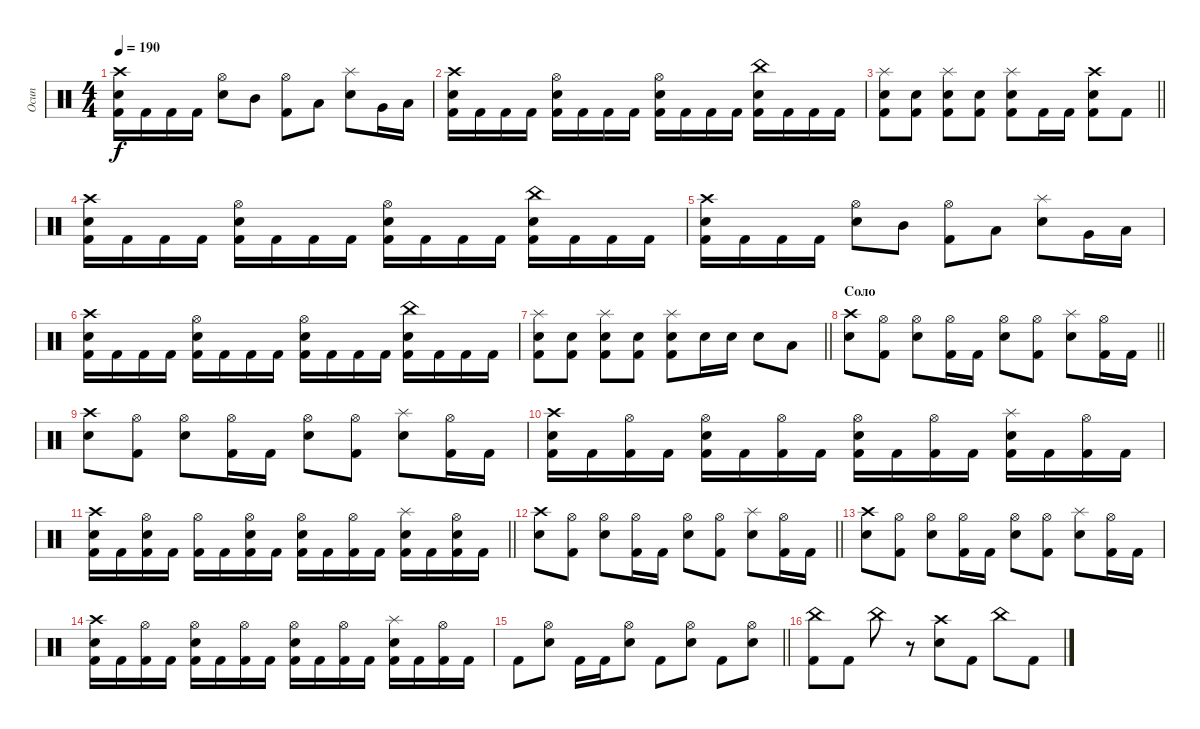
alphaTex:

\track ("Осип" "Осип") {instrument percussion}
\staff {score}
\articulation defaults
\ts (4 4)
\tempo 190
\clef neutral
\ks c
("Kick (hit) 2" "Electric Snare (hit)" "Crash high (hit)").16{dy f} "Kick (hit) 2".16 "Kick (hit) 2".16 "Kick (hit) 2".16 ("Electric Snare (hit)" "Hi-Hat (open)").8 "Mid Tom (hit)".8 ("Kick (hit) 2" "Hi-Hat (open)").8 "Low Tom (hit)".8 ("Electric Snare (hit)" "Splash (hit)").8 "Very Low Tom (hit)".16 "Low Tom (hit)".16 |
("Kick (hit) 2" "Electric Snare (hit)" "Crash high (hit)").16 "Kick (hit) 2".16 "Kick (hit) 2".16 "Kick (hit) 2".16 ("Kick (hit) 2" "Electric Snare (hit)" "Hi-Hat (open)").16 "Kick (hit) 2".16 "Kick (hit) 2".16 "Kick (hit) 2".16 ("Kick (hit) 2" "Electric Snare (hit)" "Hi-Hat (open)").16 "Kick (hit) 2".16 "Kick (hit) 2".16 "Kick (hit) 2".16 ("Kick (hit) 2" "Electric Snare (hit)" "China (hit)").16 "Kick (hit) 2".16 "Kick (hit) 2".16 "Kick (hit) 2".16 |
\barLineRight lightlight
("Kick (hit) 2" "Electric Snare (hit)" "Splash (hit)").8 ("Kick (hit) 2" "Electric Snare (hit)").8 ("Kick (hit) 2" "Electric Snare (hit)" "Splash (hit)").8 ("Kick (hit) 2" "Electric Snare (hit)").8 ("Kick (hit) 2" "Electric Snare (hit)" "Splash (hit)").8 "Kick (hit) 2".16 "Kick (hit) 2".16 ("Kick (hit) 2" "Electric Snare (hit)" "Crash high (hit)").8 "Kick (hit) 2".8 |
("Kick (hit) 2" "Electric Snare (hit)" "Crash high (hit)").16 "Kick (hit) 2".16 "Kick (hit) 2".16 "Kick (hit) 2".16 ("Kick (hit) 2" "Electric Snare (hit)" "Hi-Hat (open)").16 "Kick (hit) 2".16 "Kick (hit) 2".16 "Kick (hit) 2".16 ("Kick (hit) 2" "Electric Snare (hit)" "Hi-Hat (open)").16 "Kick (hit) 2".16 "Kick (hit) 2".16 "Kick (hit) 2".16 ("Kick (hit) 2" "Electric Snare (hit)" "China (hit)").16 "Kick (hit) 2".16 "Kick (hit) 2".16 "Kick (hit) 2".16 |
("Kick (hit) 2" "Electric Snare (hit)" "Crash high (hit)").16 "Kick (hit) 2".16 "Kick (hit) 2".16 "Kick (hit) 2".16 ("Electric Snare (hit)" "Hi-Hat (open)").8 "Mid Tom (hit)".8 ("Kick (hit) 2" "Hi-Hat (open)").8 "Low Tom (hit)".8 ("Electric Snare (hit)" "Splash (hit)").8 "Very Low Tom (hit)".16 "Low Tom (hit)".16 |
("Kick (hit) 2" "Electric Snare (hit)" "Crash high (hit)").16 "Kick (hit) 2".16 "Kick (hit) 2".16 "Kick (hit) 2".16 ("Kick (hit) 2" "Electric Snare (hit)" "Hi-Hat (open)").16 "Kick (hit) 2".16 "Kick (hit) 2".16 "Kick (hit) 2".16 ("Kick (hit) 2" "Electric Snare (hit)" "Hi-Hat (open)").16 "Kick (hit) 2".16 "Kick (hit) 2".16 "Kick (hit) 2".16 ("Kick (hit) 2" "Electric Snare (hit)" "China (hit)").16 "Kick (hit) 2".16 "Kick (hit) 2".16 "Kick (hit) 2".16 |
\barLineRight lightlight
("Kick (hit) 2" "Electric Snare (hit)" "Splash (hit)").8 ("Kick (hit) 2" "Electric Snare (hit)").8 ("Kick (hit) 2" "Electric Snare (hit)" "Splash (hit)").8 ("Kick (hit) 2" "Electric Snare (hit)").8 ("Kick (hit) 2" "Electric Snare (hit)" "Splash (hit)").8 "Electric Snare (hit)".16 "Electric Snare (hit)".16 "Electric Snare (hit)".8 "Low Tom (hit)".8 |
\section ("" "Соло")
\barLineRight lightlight
("Electric Snare (hit)" "Crash high (hit)").8 ("Kick (hit) 2" "Hi-Hat (open)").8 ("Electric Snare (hit)" "Hi-Hat (open)").8 ("Kick (hit) 2" "Hi-Hat (open)").16 "Kick (hit) 2".16 ("Electric Snare (hit)" "Hi-Hat (open)").8 ("Kick (hit) 2" "Hi-Hat (open)").8 ("Electric Snare (hit)" "Splash (hit)").8 ("Kick (hit) 2" "Hi-Hat (open)").16 "Kick (hit) 2".16 |
("Electric Snare (hit)" "Crash high (hit)").8 ("Kick (hit) 2" "Hi-Hat (open)").8 ("Electric Snare (hit)" "Hi-Hat (open)").8 ("Kick (hit) 2" "Hi-Hat (open)").16 "Kick (hit) 2".16 ("Electric Snare (hit)" "Hi-Hat (open)").8 ("Kick (hit) 2" "Hi-Hat (open)").8 ("Electric Snare (hit)" "Splash (hit)").8 ("Kick (hit) 2" "Hi-Hat (open)").16 "Kick (hit) 2".16 |
("Kick (hit) 2" "Electric Snare (hit)" "Crash high (hit)").16 "Kick (hit) 2".16 ("Kick (hit) 2" "Hi-Hat (open)").16 "Kick (hit) 2".16 ("Kick (hit) 2" "Electric Snare (hit)" "Hi-Hat (open)").16 "Kick (hit) 2".16 ("Kick (hit) 2" "Hi-Hat (open)").16 "Kick (hit) 2".16 ("Kick (hit) 2" "Electric Snare (hit)" "Hi-Hat (open)").16 "Kick (hit) 2".16 ("Kick (hit) 2" "Hi-Hat (open)").16 "Kick (hit) 2".16 ("Kick (hit) 2" "Electric Snare (hit)" "Splash (hit)").16 "Kick (hit) 2".16 ("Kick (hit) 2" "Hi-Hat (open)").16 "Kick (hit) 2".16 |
\barLineRight lightlight
("Kick (hit) 2" "Electric Snare (hit)" "Crash high (hit)").16 "Kick (hit) 2".16 ("Kick (hit) 2" "Electric Snare (hit)" "Hi-Hat (open)").16 "Kick (hit) 2".16 ("Kick (hit) 2" "Hi-Hat (open)").16 "Kick (hit) 2".16 ("Kick (hit) 2" "Electric Snare (hit)" "Hi-Hat (open)").16 "Kick (hit) 2".16 ("Kick (hit) 2" "Electric Snare (hit)" "Hi-Hat (open)").16 "Kick (hit) 2".16 ("Kick (hit) 2" "Hi-Hat (open)").16 "Kick (hit) 2".16 ("Kick (hit) 2" "Electric Snare (hit)" "Splash (hit)").16 "Kick (hit) 2".16 ("Kick (hit) 2" "Electric Snare (hit)" "Hi-Hat (open)").16 "Kick (hit) 2".16 |
\barLineRight lightlight
("Electric Snare (hit)" "Crash high (hit)").8 ("Kick (hit) 2" "Hi-Hat (open)").8 ("Electric Snare (hit)" "Hi-Hat (open)").8 ("Kick (hit) 2" "Hi-Hat (open)").16 "Kick (hit) 2".16 ("Electric Snare (hit)" "Hi-Hat (open)").8 ("Kick (hit) 2" "Hi-Hat (open)").8 ("Electric Snare (hit)" "Splash (hit)").8 ("Kick (hit) 2" "Hi-Hat (open)").16 "Kick (hit) 2".16 |
("Electric Snare (hit)" "Crash high (hit)").8 ("Kick (hit) 2" "Hi-Hat (open)").8 ("Electric Snare (hit)" "Hi-Hat (open)").8 ("Kick (hit) 2" "Hi-Hat (open)").16 "Kick (hit) 2".16 ("Electric Snare (hit)" "Hi-Hat (open)").8 ("Kick (hit) 2" "Hi-Hat (open)").8 ("Electric Snare (hit)" "Splash (hit)").8 ("Kick (hit) 2" "Hi-Hat (open)").16 "Kick (hit) 2".16 |
("Kick (hit) 2" "Electric Snare (hit)" "Crash high (hit)").16 "Kick (hit) 2".16 ("Kick (hit) 2" "Hi-Hat (open)").16 "Kick (hit) 2".16 ("Kick (hit) 2" "Electric Snare (hit)" "Hi-Hat (open)").16 "Kick (hit) 2".16 ("Kick (hit) 2" "Hi-Hat (open)").16 "Kick (hit) 2".16 ("Kick (hit) 2" "Electric Snare (hit)" "Hi-Hat (open)").16 "Kick (hit) 2".16 ("Kick (hit) 2" "Hi-Hat (open)").16 "Kick (hit) 2".16 ("Kick (hit) 2" "Electric Snare (hit)" "Splash (hit)").16 "Kick (hit) 2".16 ("Kick (hit) 2" "Hi-Hat (open)").16 "Kick (hit) 2".16 |
\barLineRight lightlight "Kick (hit) 2".8
("Electric Snare (hit)" "Hi-Hat (open)").8 "Kick (hit) 2".16 "Kick (hit) 2".16 ("Electric Snare (hit)" "Hi-Hat (open)").8 "Kick (hit) 2".8 ("Electric Snare (hit)" "Hi-Hat (open)").8 "Kick (hit) 2".8 ("Electric Snare (hit)" "Hi-Hat (open)").8 |
("Kick (hit) 2" "China (hit)").8 "Kick (hit) 2".8 "China (hit)".8 r.8 ("Electric Snare (hit)" "Crash high (hit)").8 "Kick (hit) 2".8 "China (hit)".8 "Kick (hit) 2".8
